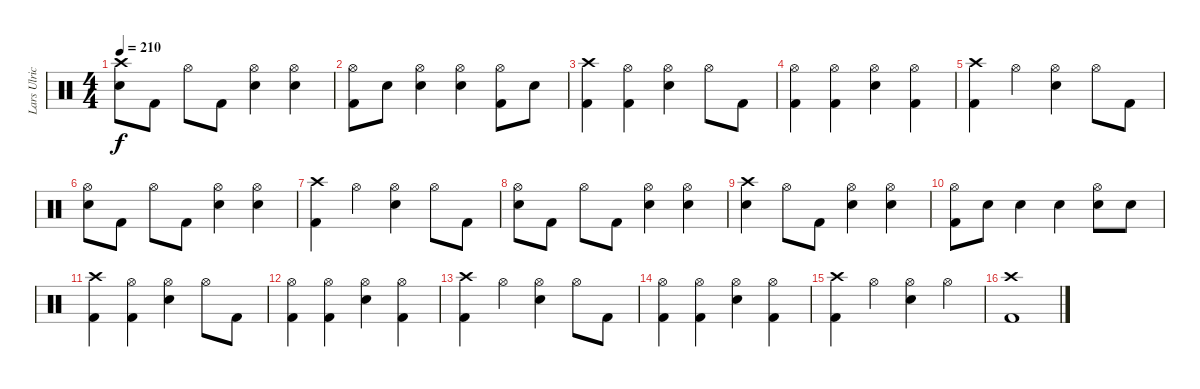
\track ("Lars Ulrich" "Lars Ulric") {instrument percussion}
\staff {score}
\articulation defaults
\ts (4 4)
\tempo 210
\clef neutral
\ks c
("Snare (hit) 2" "Crash high (hit)").8{dy f} "Kick (hit) 2".8 "Hi-Hat (open)".8 "Kick (hit) 2".8 ("Snare (hit) 2" "Hi-Hat (open)").4 ("Snare (hit) 2" "Hi-Hat (open)").4 |
("Kick (hit) 2" "Hi-Hat (open)").8 "Snare (hit) 2".8 ("Snare (hit) 2" "Hi-Hat (open)").4 ("Snare (hit) 2" "Hi-Hat (open)").4 ("Kick (hit) 2" "Hi-Hat (open)").8 "Snare (hit) 2".8 |
("Kick (hit) 2" "Crash high (hit)").4 ("Kick (hit) 2" "Hi-Hat (open)").4 ("Snare (hit) 2" "Hi-Hat (open)").4 "Hi-Hat (open)".8 "Kick (hit) 2".8 |
("Kick (hit) 2" "Hi-Hat (open)").4 ("Kick (hit) 2" "Hi-Hat (open)").4 ("Snare (hit) 2" "Hi-Hat (open)").4 ("Kick (hit) 2" "Hi-Hat (open)").4 |
("Kick (hit) 2" "Crash high (hit)").4 "Hi-Hat (open)".4 ("Snare (hit) 2" "Hi-Hat (open)").4 "Hi-Hat (open)".8 "Kick (hit) 2".8 |
("Snare (hit) 2" "Hi-Hat (open)").8 "Kick (hit) 2".8 "Hi-Hat (open)".8 "Kick (hit) 2".8 ("Snare (hit) 2" "Hi-Hat (open)").4 ("Snare (hit) 2" "Hi-Hat (open)").4 |
("Kick (hit) 2" "Crash high (hit)").4 "Hi-Hat (open)".4 ("Snare (hit) 2" "Hi-Hat (open)").4 "Hi-Hat (open)".8 "Kick (hit) 2".8 |
("Snare (hit) 2" "Hi-Hat (open)").8 "Kick (hit) 2".8 "Hi-Hat (open)".8 "Kick (hit) 2".8 ("Snare (hit) 2" "Hi-Hat (open)").4 ("Snare (hit) 2" "Hi-Hat (open)").4 |
("Snare (hit) 2" "Crash high (hit)").4 "Hi-Hat (open)".8 "Kick (hit) 2".8 ("Snare (hit) 2" "Hi-Hat (open)").4 ("Snare (hit) 2" "Hi-Hat (open)").4 |
("Kick (hit) 2" "Hi-Hat (open)").8 "Snare (hit) 2".8 "Snare (hit) 2".4 "Snare (hit) 2".4 ("Snare (hit) 2" "Hi-Hat (open)").8 "Snare (hit) 2".8 |
("Kick (hit) 2" "Crash high (hit)").4 ("Kick (hit) 2" "Hi-Hat (open)").4 ("Snare (hit) 2" "Hi-Hat (open)").4 "Hi-Hat (open)".8 "Kick (hit) 2".8 |
("Kick (hit) 2" "Hi-Hat (open)").4 ("Kick (hit) 2" "Hi-Hat (open)").4 ("Snare (hit) 2" "Hi-Hat (open)").4 ("Kick (hit) 2" "Hi-Hat (open)").4 |
("Kick (hit) 2" "Crash high (hit)").4 "Hi-Hat (open)".4 ("Snare (hit) 2" "Hi-Hat (open)").4 "Hi-Hat (open)".8 "Kick (hit) 2".8 |
("Kick (hit) 2" "Hi-Hat (open)").4 ("Kick (hit) 2" "Hi-Hat (open)").4 ("Snare (hit) 2" "Hi-Hat (open)").4 ("Kick (hit) 2" "Hi-Hat (open)").4 |
("Kick (hit) 2" "Crash high (hit)").4 "Hi-Hat (open)".4 ("Snare (hit) 2" "Hi-Hat (open)").4 "Hi-Hat (open)".4 |
("Kick (hit) 2" "Crash high (hit)").1
